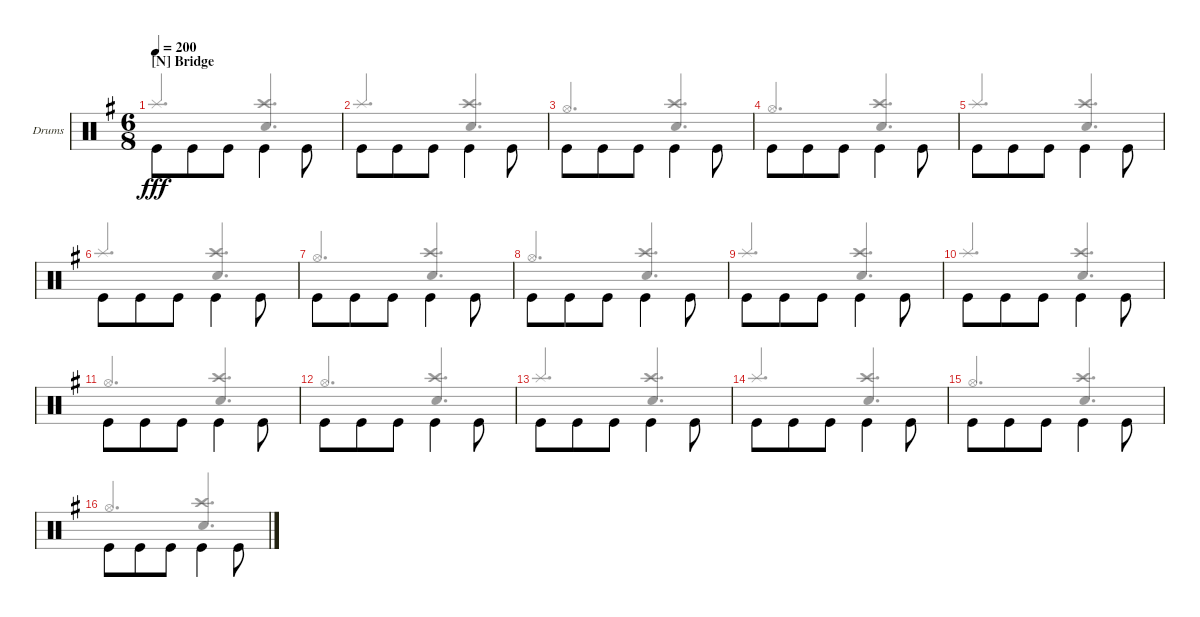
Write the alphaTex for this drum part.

\bracketExtendMode groupsimilarinstruments
\firstSystemTrackNameOrientation horizontal
\otherSystemsTrackNameOrientation horizontal
\track ("Drumkit" "Drums") {instrument percussion}
\staff {score}
\articulation defaults
\voice
\ts (6 8)
\section ("N" "Bridge")
\tempo 200
\clef neutral
\ks eminor "Kick (hit)".8{dy fff beam invert} "Kick (hit)".8 "Kick (hit)".8 "Kick (hit)".4{beam invert} "Kick (hit)".8{beam invert}
|
"Kick (hit)".8{beam invert} "Kick (hit)".8 "Kick (hit)".8 "Kick (hit)".4{beam invert} "Kick (hit)".8{beam invert} |
"Kick (hit)".8{beam invert} "Kick (hit)".8 "Kick (hit)".8 "Kick (hit)".4{beam invert} "Kick (hit)".8{beam invert} |
"Kick (hit)".8{beam invert} "Kick (hit)".8 "Kick (hit)".8 "Kick (hit)".4{beam invert} "Kick (hit)".8{beam invert} |
"Kick (hit)".8{beam invert} "Kick (hit)".8 "Kick (hit)".8 "Kick (hit)".4{beam invert} "Kick (hit)".8{beam invert} |
"Kick (hit)".8{beam invert} "Kick (hit)".8 "Kick (hit)".8 "Kick (hit)".4{beam invert} "Kick (hit)".8{beam invert} |
"Kick (hit)".8{beam invert} "Kick (hit)".8 "Kick (hit)".8 "Kick (hit)".4{beam invert} "Kick (hit)".8{beam invert} |
"Kick (hit)".8{beam invert} "Kick (hit)".8 "Kick (hit)".8 "Kick (hit)".4{beam invert} "Kick (hit)".8{beam invert} |
"Kick (hit)".8{beam invert} "Kick (hit)".8 "Kick (hit)".8 "Kick (hit)".4{beam invert} "Kick (hit)".8{beam invert} |
"Kick (hit)".8{beam invert} "Kick (hit)".8 "Kick (hit)".8 "Kick (hit)".4{beam invert} "Kick (hit)".8{beam invert} |
"Kick (hit)".8{beam invert} "Kick (hit)".8 "Kick (hit)".8 "Kick (hit)".4{beam invert} "Kick (hit)".8{beam invert} |
"Kick (hit)".8{beam invert} "Kick (hit)".8 "Kick (hit)".8 "Kick (hit)".4{beam invert} "Kick (hit)".8{beam invert} |
"Kick (hit)".8{beam invert} "Kick (hit)".8 "Kick (hit)".8 "Kick (hit)".4{beam invert} "Kick (hit)".8{beam invert} |
"Kick (hit)".8{beam invert} "Kick (hit)".8 "Kick (hit)".8 "Kick (hit)".4{beam invert} "Kick (hit)".8{beam invert} |
"Kick (hit)".8{beam invert} "Kick (hit)".8 "Kick (hit)".8 "Kick (hit)".4{beam invert} "Kick (hit)".8{beam invert} |
"Kick (hit)".8{beam invert} "Kick (hit)".8 "Kick (hit)".8 "Kick (hit)".4{beam invert} "Kick (hit)".8{beam invert}
\voice
\clef neutral
\ottava regular
\simile none
\ks eminor "Splash (hit)".4{d dy fff beam invert}
("Crash high (hit)" "Snare (hit) 2").4{d beam invert} |
"Splash (hit)".4{d beam invert} ("Crash high (hit)" "Snare (hit) 2").4{d beam invert} |
"Hi-Hat (open)".4{d beam invert} ("Crash high (hit)" "Snare (hit) 2").4{d beam invert} |
"Hi-Hat (open)".4{d beam invert} ("Crash high (hit)" "Snare (hit) 2").4{d beam invert} |
"Splash (hit)".4{d beam invert} ("Crash high (hit)" "Snare (hit) 2").4{d beam invert} |
"Splash (hit)".4{d beam invert} ("Crash high (hit)" "Snare (hit) 2").4{d beam invert} |
"Hi-Hat (open)".4{d beam invert} ("Crash high (hit)" "Snare (hit) 2").4{d beam invert} |
"Hi-Hat (open)".4{d beam invert} ("Crash high (hit)" "Snare (hit) 2").4{d beam invert} |
"Splash (hit)".4{d beam invert} ("Crash high (hit)" "Snare (hit) 2").4{d beam invert} |
"Splash (hit)".4{d beam invert} ("Crash high (hit)" "Snare (hit) 2").4{d beam invert} |
"Hi-Hat (open)".4{d beam invert} ("Crash high (hit)" "Snare (hit) 2").4{d beam invert} |
"Hi-Hat (open)".4{d beam invert} ("Crash high (hit)" "Snare (hit) 2").4{d beam invert} |
"Splash (hit)".4{d beam invert} ("Crash high (hit)" "Snare (hit) 2").4{d beam invert} |
"Splash (hit)".4{d beam invert} ("Crash high (hit)" "Snare (hit) 2").4{d beam invert} |
"Hi-Hat (open)".4{d beam invert} ("Crash high (hit)" "Snare (hit) 2").4{d beam invert} |
"Hi-Hat (open)".4{d beam invert} ("Crash high (hit)" "Snare (hit) 2").4{d beam invert}
